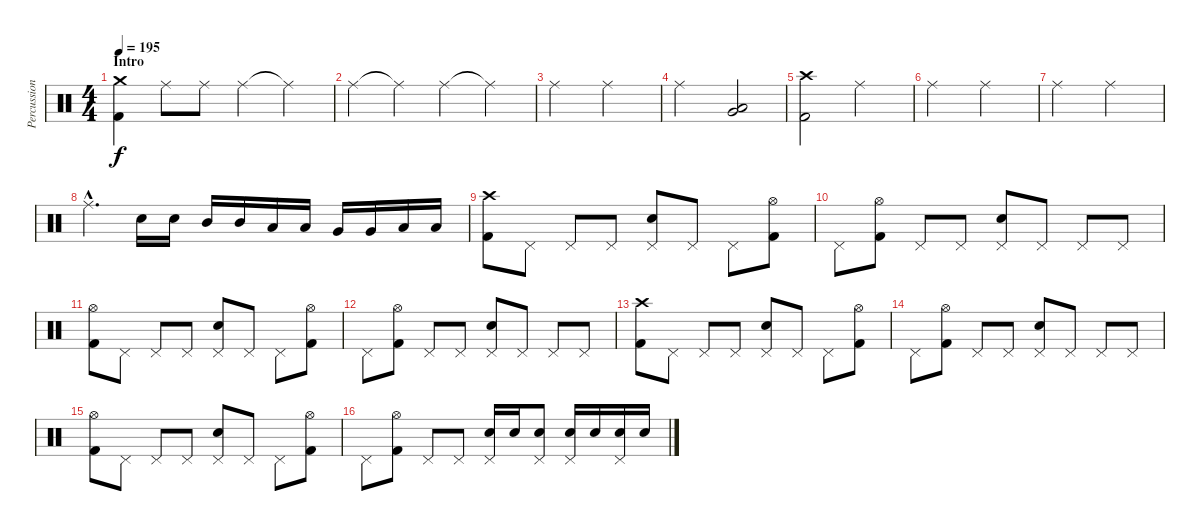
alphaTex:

\track ("Percussion" "Percussion") {instrument percussion}
\staff {score}
\articulation defaults
\ts (4 4)
\section ("" "Intro")
\tempo 195
\clef neutral
\ks c
("Crash medium (hit)" "Kick (hit) 2").4{dy f} "Ride (middle)".8 "Ride (middle)".8 "Ride (middle)".4 "Ride (middle)"{t}.4 |
"Ride (middle)".4 "Ride (middle)"{t}.4 "Ride (middle)".4 "Ride (middle)"{t}.4 |
"Ride (middle)".2 "Ride (middle)".2 |
"Ride (middle)".2 ("Very Low Tom (hit)" "Low Floor Tom (hit)").2 |
("Crash high (hit)" "Kick (hit) 2").2 "Ride (middle)".2 |
"Ride (middle)".2 "Ride (middle)".2 |
"Ride (middle)".2 "Ride (middle)".2 |
"Ride (middle)"{hac}.4{d} "Electric Snare (hit)".16 "Electric Snare (hit)".16 "Mid Tom (hit)".16 "Mid Tom (hit)".16 "Low Tom (hit)".16 "Low Tom (hit)".16 "Very Low Tom (hit)".16 "Very Low Tom (hit)".16 "Low Floor Tom (hit)".16 "Low Floor Tom (hit)".16 |
("Crash high (hit)" "Kick (hit) 2").8 "Pedal Hi-Hat (hit)".8 "Pedal Hi-Hat (hit)".8 "Pedal Hi-Hat (hit)".8 ("Pedal Hi-Hat (hit)" "Electric Snare (hit)").8 "Pedal Hi-Hat (hit)".8 "Pedal Hi-Hat (hit)".8 ("Hi-Hat (open)" "Kick (hit) 2").8 |
"Pedal Hi-Hat (hit)".8 ("Hi-Hat (open)" "Kick (hit) 2").8 "Pedal Hi-Hat (hit)".8 "Pedal Hi-Hat (hit)".8 ("Pedal Hi-Hat (hit)" "Electric Snare (hit)").8 "Pedal Hi-Hat (hit)".8 "Pedal Hi-Hat (hit)".8 "Pedal Hi-Hat (hit)".8 |
("Hi-Hat (open)" "Kick (hit) 2").8 "Pedal Hi-Hat (hit)".8 "Pedal Hi-Hat (hit)".8 "Pedal Hi-Hat (hit)".8 ("Pedal Hi-Hat (hit)" "Electric Snare (hit)").8 "Pedal Hi-Hat (hit)".8 "Pedal Hi-Hat (hit)".8 ("Hi-Hat (open)" "Kick (hit) 2").8 |
"Pedal Hi-Hat (hit)".8 ("Hi-Hat (open)" "Kick (hit) 2").8 "Pedal Hi-Hat (hit)".8 "Pedal Hi-Hat (hit)".8 ("Pedal Hi-Hat (hit)" "Electric Snare (hit)").8 "Pedal Hi-Hat (hit)".8 "Pedal Hi-Hat (hit)".8 "Pedal Hi-Hat (hit)".8 |
("Crash high (hit)" "Kick (hit) 2").8 "Pedal Hi-Hat (hit)".8 "Pedal Hi-Hat (hit)".8 "Pedal Hi-Hat (hit)".8 ("Pedal Hi-Hat (hit)" "Electric Snare (hit)").8 "Pedal Hi-Hat (hit)".8 "Pedal Hi-Hat (hit)".8 ("Hi-Hat (open)" "Kick (hit) 2").8 |
"Pedal Hi-Hat (hit)".8 ("Hi-Hat (open)" "Kick (hit) 2").8 "Pedal Hi-Hat (hit)".8 "Pedal Hi-Hat (hit)".8 ("Pedal Hi-Hat (hit)" "Electric Snare (hit)").8 "Pedal Hi-Hat (hit)".8 "Pedal Hi-Hat (hit)".8 "Pedal Hi-Hat (hit)".8 |
("Hi-Hat (open)" "Kick (hit) 2").8 "Pedal Hi-Hat (hit)".8 "Pedal Hi-Hat (hit)".8 "Pedal Hi-Hat (hit)".8 ("Pedal Hi-Hat (hit)" "Electric Snare (hit)").8 "Pedal Hi-Hat (hit)".8 "Pedal Hi-Hat (hit)".8 ("Hi-Hat (open)" "Kick (hit) 2").8 |
"Pedal Hi-Hat (hit)".8 ("Hi-Hat (open)" "Kick (hit) 2").8 "Pedal Hi-Hat (hit)".8 "Pedal Hi-Hat (hit)".8 ("Pedal Hi-Hat (hit)" "Electric Snare (hit)").16 "Electric Snare (hit)".16 ("Pedal Hi-Hat (hit)" "Electric Snare (hit)").8 ("Pedal Hi-Hat (hit)" "Electric Snare (hit)").16 "Electric Snare (hit)".16 ("Pedal Hi-Hat (hit)" "Electric Snare (hit)").16 "Electric Snare (hit)".16
